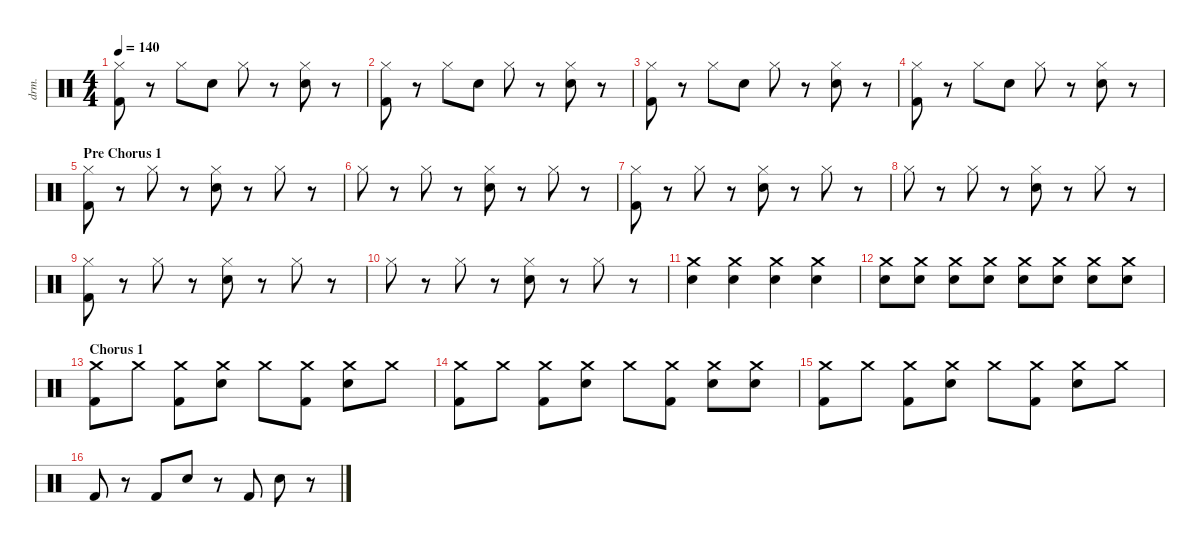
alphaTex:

\defaultSystemsLayout 4
\hideDynamics
\bracketExtendMode nobrackets
\otherSystemsTrackNameOrientation horizontal
\track ("Drumkit" "drm.") {instrument percussion}
\staff {score}
\articulation defaults
\ts (4 4)
\tempo 140
\clef neutral
\ks c
("Kick (hit) 2" "Hi-Hat (closed)").8{dy mf beam Down} r.8{beam Down} "Hi-Hat (closed)".8{beam Down} "Snare (hit) 2".8{beam Down} "Hi-Hat (closed)".8{beam Down} r.8{beam Down} ("Snare (hit) 2" "Hi-Hat (closed)").8{beam Down} r.8{beam Down} |
("Kick (hit) 2" "Hi-Hat (closed)").8{beam Down} r.8{beam Down} "Hi-Hat (closed)".8{beam Down} "Snare (hit) 2".8{beam Down} "Hi-Hat (closed)".8{beam Down} r.8{beam Down} ("Snare (hit) 2" "Hi-Hat (closed)").8{beam Down} r.8{beam Down} |
("Kick (hit) 2" "Hi-Hat (closed)").8{beam Down} r.8{beam Down} "Hi-Hat (closed)".8{beam Down} "Snare (hit) 2".8{beam Down} "Hi-Hat (closed)".8{beam Down} r.8{beam Down} ("Snare (hit) 2" "Hi-Hat (closed)").8{beam Down} r.8{beam Down} |
("Kick (hit) 2" "Hi-Hat (closed)").8{beam Down} r.8{beam Down} "Hi-Hat (closed)".8{beam Down} "Snare (hit) 2".8{beam Down} "Hi-Hat (closed)".8{beam Down} r.8{beam Down} ("Snare (hit) 2" "Hi-Hat (closed)").8{beam Down} r.8{beam Down} |
\section ("" "Pre Chorus 1")
("Kick (hit) 2" "Hi-Hat (closed)").8{beam Down} r.8{beam Down} "Hi-Hat (closed)".8{beam Down} r.8{beam Down} ("Hi-Hat (closed)" "Snare (hit) 2").8{beam Down} r.8{beam Down} "Hi-Hat (closed)".8{beam Down} r.8{beam Down} |
"Hi-Hat (closed)".8{beam Down} r.8{beam Down} "Hi-Hat (closed)".8{beam Down} r.8{beam Down} ("Hi-Hat (closed)" "Snare (hit) 2").8{beam Down} r.8{beam Down} "Hi-Hat (closed)".8{beam Down} r.8{beam Down} |
("Kick (hit) 2" "Hi-Hat (closed)").8{beam Down} r.8{beam Down} "Hi-Hat (closed)".8{beam Down} r.8{beam Down} ("Hi-Hat (closed)" "Snare (hit) 2").8{beam Down} r.8{beam Down} "Hi-Hat (closed)".8{beam Down} r.8{beam Down} |
"Hi-Hat (closed)".8{beam Down} r.8{beam Down} "Hi-Hat (closed)".8{beam Down} r.8{beam Down} ("Hi-Hat (closed)" "Snare (hit) 2").8{beam Down} r.8{beam Down} "Hi-Hat (closed)".8{beam Down} r.8{beam Down} |
("Kick (hit) 2" "Hi-Hat (closed)").8{beam Down} r.8{beam Down} "Hi-Hat (closed)".8{beam Down} r.8{beam Down} ("Hi-Hat (closed)" "Snare (hit) 2").8{beam Down} r.8{beam Down} "Hi-Hat (closed)".8{beam Down} r.8{beam Down} |
"Hi-Hat (closed)".8{beam Down} r.8{beam Down} "Hi-Hat (closed)".8{beam Down} r.8{beam Down} ("Hi-Hat (closed)" "Snare (hit) 2").8{beam Down} r.8{beam Down} "Hi-Hat (closed)".8{beam Down} r.8{beam Down} |
("Snare (hit) 2" "Crash medium (hit)").4{beam Down} ("Snare (hit) 2" "Crash medium (hit)").4{beam Down} ("Snare (hit) 2" "Crash medium (hit)").4{beam Down} ("Snare (hit) 2" "Crash medium (hit)").4{beam Down} |
("Snare (hit) 2" "Crash medium (hit)").8{beam Down} ("Snare (hit) 2" "Crash medium (hit)").8{beam Down} ("Snare (hit) 2" "Crash medium (hit)").8{beam Down} ("Snare (hit) 2" "Crash medium (hit)").8{beam Down} ("Snare (hit) 2" "Crash medium (hit)").8{beam Down} ("Snare (hit) 2" "Crash medium (hit)").8{beam Down} ("Snare (hit) 2" "Crash medium (hit)").8{beam Down} ("Snare (hit) 2" "Crash medium (hit)").8{beam Down} |
\section ("" "Chorus 1")
("Crash medium (hit)" "Kick (hit) 2").8{beam Down} "Crash medium (hit)".8{beam Down} ("Crash medium (hit)" "Kick (hit) 2").8{beam Down} ("Snare (hit) 2" "Crash medium (hit)").8{beam Down} "Crash medium (hit)".8{beam Down} ("Crash medium (hit)" "Kick (hit) 2").8{beam Down} ("Crash medium (hit)" "Snare (hit) 2").8{beam Down} "Crash medium (hit)".8{beam Down} |
("Crash medium (hit)" "Kick (hit) 2").8{beam Down} "Crash medium (hit)".8{beam Down} ("Crash medium (hit)" "Kick (hit) 2").8{beam Down} ("Snare (hit) 2" "Crash medium (hit)").8{beam Down} "Crash medium (hit)".8{beam Down} ("Crash medium (hit)" "Kick (hit) 2").8{beam Down} ("Crash medium (hit)" "Snare (hit) 2").8{beam Down} ("Crash medium (hit)" "Snare (hit) 2").8{beam Down} |
("Crash medium (hit)" "Kick (hit) 2").8{beam Down} "Crash medium (hit)".8{beam Down} ("Crash medium (hit)" "Kick (hit) 2").8{beam Down} ("Snare (hit) 2" "Crash medium (hit)").8{beam Down} "Crash medium (hit)".8{beam Down} ("Crash medium (hit)" "Kick (hit) 2").8{beam Down} ("Crash medium (hit)" "Snare (hit) 2").8{beam Down} "Crash medium (hit)".8{beam Down} |
"Kick (hit) 2".8{beam Up} r.8{beam Up} "Kick (hit) 2".8{beam Up} "Snare (hit) 2".8{beam Up} r.8{beam Up} "Kick (hit) 2".8{beam Up} "Snare (hit) 2".8{beam Down} r.8{beam Down}
